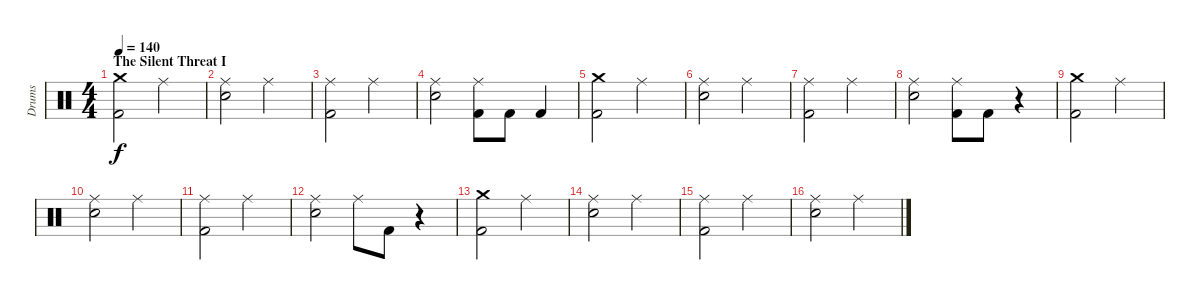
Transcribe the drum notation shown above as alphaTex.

\track ("Drums" "Drums") {instrument percussion}
\staff {score}
\articulation defaults
\ts (4 4)
\section ("" "The Silent Threat I")
\tempo 140
\clef neutral
\ks c
("Crash medium (hit)" "Kick (hit) 2").2{dy f} "Ride (middle)".2 |
("Ride (middle)" "Electric Snare (hit)").2 "Ride (middle)".2 |
("Ride (middle)" "Kick (hit) 2").2 "Ride (middle)".2 |
("Ride (middle)" "Electric Snare (hit)").2 ("Ride (middle)" "Kick (hit) 2").8 "Kick (hit) 2".8 "Kick (hit) 2".4 |
("Crash medium (hit)" "Kick (hit) 2").2 "Ride (middle)".2 |
("Ride (middle)" "Electric Snare (hit)").2 "Ride (middle)".2 |
("Ride (middle)" "Kick (hit) 2").2 "Ride (middle)".2 |
("Ride (middle)" "Electric Snare (hit)").2 ("Ride (middle)" "Kick (hit) 2").8 "Kick (hit) 2".8 r.4 |
("Crash medium (hit)" "Kick (hit) 2").2 "Ride (middle)".2 |
("Ride (middle)" "Electric Snare (hit)").2 "Ride (middle)".2 |
("Ride (middle)" "Kick (hit) 2").2 "Ride (middle)".2 |
("Ride (middle)" "Electric Snare (hit)").2 "Ride (middle)".8 "Kick (hit) 2".8 r.4 |
("Crash medium (hit)" "Kick (hit) 2").2 "Ride (middle)".2 |
("Ride (middle)" "Electric Snare (hit)").2 "Ride (middle)".2 |
("Ride (middle)" "Kick (hit) 2").2 "Ride (middle)".2 |
("Ride (middle)" "Electric Snare (hit)").2 "Ride (middle)".2
